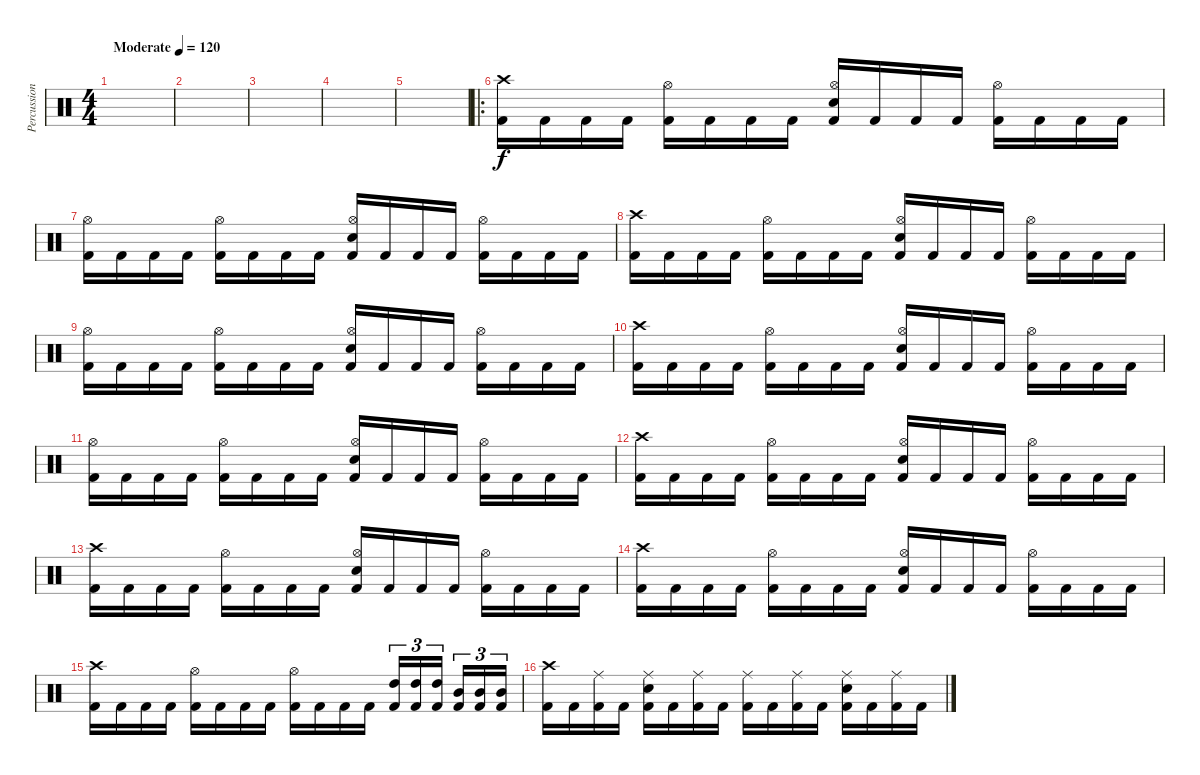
\track ("Percussion" "Percussion") {instrument percussion}
\staff {score}
\articulation defaults
\ts (4 4)
\tempo (120 "Moderate")
\clef neutral
\ks c
|
|
|
|
|
\ro
("Kick (hit) 2" "Crash high (hit)").16 "Kick (hit) 2".16 "Kick (hit) 2".16 "Kick (hit) 2".16 ("Kick (hit) 2" "Hi-Hat (open)").16 "Kick (hit) 2".16 "Kick (hit) 2".16 "Kick (hit) 2".16 ("Kick (hit) 2" "Snare (hit) 2" "Hi-Hat (open)").16 "Kick (hit) 2".16 "Kick (hit) 2".16 "Kick (hit) 2".16 ("Kick (hit) 2" "Hi-Hat (open)").16 "Kick (hit) 2".16 "Kick (hit) 2".16 "Kick (hit) 2".16 |
("Kick (hit) 2" "Hi-Hat (open)").16 "Kick (hit) 2".16 "Kick (hit) 2".16 "Kick (hit) 2".16 ("Kick (hit) 2" "Hi-Hat (open)").16 "Kick (hit) 2".16 "Kick (hit) 2".16 "Kick (hit) 2".16 ("Kick (hit) 2" "Snare (hit) 2" "Hi-Hat (open)").16 "Kick (hit) 2".16 "Kick (hit) 2".16 "Kick (hit) 2".16 ("Kick (hit) 2" "Hi-Hat (open)").16 "Kick (hit) 2".16 "Kick (hit) 2".16 "Kick (hit) 2".16 |
("Kick (hit) 2" "Crash high (hit)").16 "Kick (hit) 2".16 "Kick (hit) 2".16 "Kick (hit) 2".16 ("Kick (hit) 2" "Hi-Hat (open)").16 "Kick (hit) 2".16 "Kick (hit) 2".16 "Kick (hit) 2".16 ("Kick (hit) 2" "Snare (hit) 2" "Hi-Hat (open)").16 "Kick (hit) 2".16 "Kick (hit) 2".16 "Kick (hit) 2".16 ("Kick (hit) 2" "Hi-Hat (open)").16 "Kick (hit) 2".16 "Kick (hit) 2".16 "Kick (hit) 2".16 |
("Kick (hit) 2" "Hi-Hat (open)").16 "Kick (hit) 2".16 "Kick (hit) 2".16 "Kick (hit) 2".16 ("Kick (hit) 2" "Hi-Hat (open)").16 "Kick (hit) 2".16 "Kick (hit) 2".16 "Kick (hit) 2".16 ("Kick (hit) 2" "Snare (hit) 2" "Hi-Hat (open)").16 "Kick (hit) 2".16 "Kick (hit) 2".16 "Kick (hit) 2".16 ("Kick (hit) 2" "Hi-Hat (open)").16 "Kick (hit) 2".16 "Kick (hit) 2".16 "Kick (hit) 2".16 |
("Kick (hit) 2" "Crash high (hit)").16 "Kick (hit) 2".16 "Kick (hit) 2".16 "Kick (hit) 2".16 ("Kick (hit) 2" "Hi-Hat (open)").16 "Kick (hit) 2".16 "Kick (hit) 2".16 "Kick (hit) 2".16 ("Kick (hit) 2" "Snare (hit) 2" "Hi-Hat (open)").16 "Kick (hit) 2".16 "Kick (hit) 2".16 "Kick (hit) 2".16 ("Kick (hit) 2" "Hi-Hat (open)").16 "Kick (hit) 2".16 "Kick (hit) 2".16 "Kick (hit) 2".16 |
("Kick (hit) 2" "Hi-Hat (open)").16 "Kick (hit) 2".16 "Kick (hit) 2".16 "Kick (hit) 2".16 ("Kick (hit) 2" "Hi-Hat (open)").16 "Kick (hit) 2".16 "Kick (hit) 2".16 "Kick (hit) 2".16 ("Kick (hit) 2" "Snare (hit) 2" "Hi-Hat (open)").16 "Kick (hit) 2".16 "Kick (hit) 2".16 "Kick (hit) 2".16 ("Kick (hit) 2" "Hi-Hat (open)").16 "Kick (hit) 2".16 "Kick (hit) 2".16 "Kick (hit) 2".16 |
("Kick (hit) 2" "Crash high (hit)").16 "Kick (hit) 2".16 "Kick (hit) 2".16 "Kick (hit) 2".16 ("Kick (hit) 2" "Hi-Hat (open)").16 "Kick (hit) 2".16 "Kick (hit) 2".16 "Kick (hit) 2".16 ("Kick (hit) 2" "Snare (hit) 2" "Hi-Hat (open)").16 "Kick (hit) 2".16 "Kick (hit) 2".16 "Kick (hit) 2".16 ("Kick (hit) 2" "Hi-Hat (open)").16 "Kick (hit) 2".16 "Kick (hit) 2".16 "Kick (hit) 2".16 |
("Kick (hit) 2" "Crash high (hit)").16 "Kick (hit) 2".16 "Kick (hit) 2".16 "Kick (hit) 2".16 ("Kick (hit) 2" "Hi-Hat (open)").16 "Kick (hit) 2".16 "Kick (hit) 2".16 "Kick (hit) 2".16 ("Kick (hit) 2" "Snare (hit) 2" "Hi-Hat (open)").16 "Kick (hit) 2".16 "Kick (hit) 2".16 "Kick (hit) 2".16 ("Kick (hit) 2" "Hi-Hat (open)").16 "Kick (hit) 2".16 "Kick (hit) 2".16 "Kick (hit) 2".16 |
("Kick (hit) 2" "Crash high (hit)").16 "Kick (hit) 2".16 "Kick (hit) 2".16 "Kick (hit) 2".16 ("Kick (hit) 2" "Hi-Hat (open)").16 "Kick (hit) 2".16 "Kick (hit) 2".16 "Kick (hit) 2".16 ("Kick (hit) 2" "Snare (hit) 2" "Hi-Hat (open)").16 "Kick (hit) 2".16 "Kick (hit) 2".16 "Kick (hit) 2".16 ("Kick (hit) 2" "Hi-Hat (open)").16 "Kick (hit) 2".16 "Kick (hit) 2".16 "Kick (hit) 2".16 |
("Kick (hit) 2" "Crash high (hit)").16 "Kick (hit) 2".16 "Kick (hit) 2".16 "Kick (hit) 2".16 ("Kick (hit) 2" "Hi-Hat (open)").16 "Kick (hit) 2".16 "Kick (hit) 2".16 "Kick (hit) 2".16 ("Kick (hit) 2" "Hi-Hat (open)").16 "Kick (hit) 2".16 "Kick (hit) 2".16 "Kick (hit) 2".16 ("Kick (hit) 2" "High Tom (hit)").16{tu (3 2)} ("Kick (hit) 2" "High Tom (hit)").16{tu (3 2)} ("Kick (hit) 2" "High Tom (hit)").16{tu (3 2) beam splitsecondary} ("Kick (hit) 2" "Mid Tom (hit)").16{tu (3 2)} ("Kick (hit) 2" "Mid Tom (hit)").16{tu (3 2)} ("Kick (hit) 2" "Mid Tom (hit)").16{tu (3 2)} |
("Kick (hit) 2" "Crash high (hit)").16 "Kick (hit) 2".16 ("Kick (hit) 2" "Ride (middle)").16 "Kick (hit) 2".16 ("Kick (hit) 2" "Snare (hit) 2" "Ride (middle)").16 "Kick (hit) 2".16 ("Kick (hit) 2" "Ride (middle)").16 "Kick (hit) 2".16 ("Kick (hit) 2" "Ride (middle)").16 "Kick (hit) 2".16 ("Kick (hit) 2" "Ride (middle)").16 "Kick (hit) 2".16 ("Kick (hit) 2" "Snare (hit) 2" "Ride (middle)").16 "Kick (hit) 2".16 ("Kick (hit) 2" "Ride (middle)").16 "Kick (hit) 2".16
